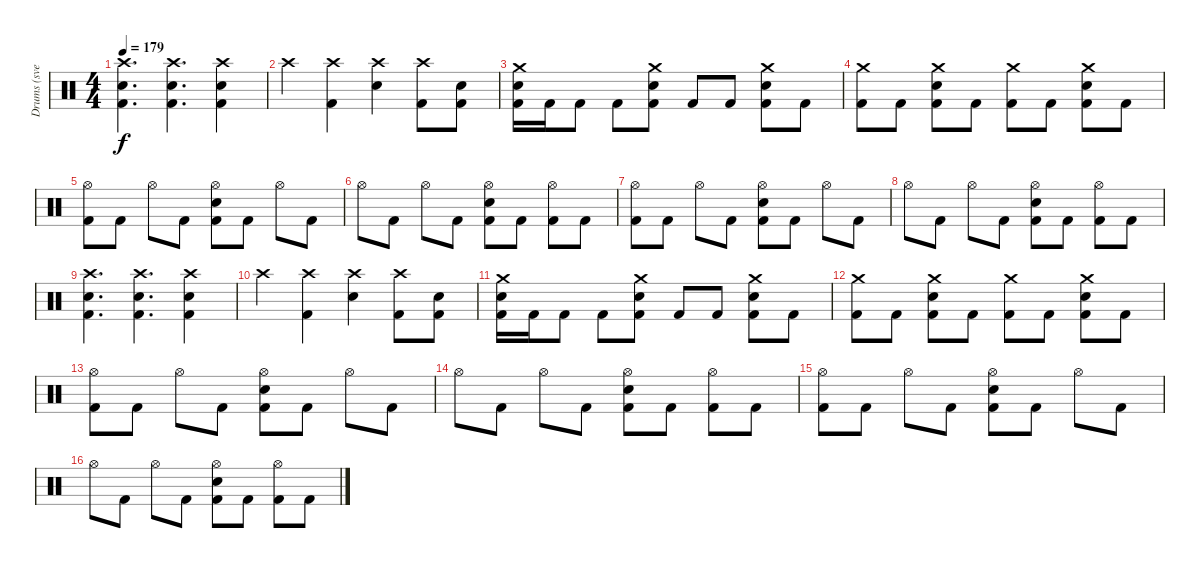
\track ("Drums (svelle)" "Drums (sve") {instrument percussion}
\staff {score}
\articulation defaults
\ts (4 4)
\tempo 179
\clef neutral
\ks c
("Crash high (hit)" "Electric Snare (hit)" "Kick (hit) 2").4{d dy f} ("Crash high (hit)" "Electric Snare (hit)" "Kick (hit) 2").4{d} ("Crash high (hit)" "Electric Snare (hit)" "Kick (hit) 2").4 |
"Crash high (hit)".4 ("Crash high (hit)" "Kick (hit) 2").4 ("Crash high (hit)" "Electric Snare (hit)").4 ("Crash high (hit)" "Kick (hit) 2").8 ("Electric Snare (hit)" "Kick (hit) 2").8 |
("Crash medium (hit)" "Electric Snare (hit)" "Kick (hit) 2").16 "Kick (hit) 2".16 "Kick (hit) 2".8 "Kick (hit) 2".8 ("Crash medium (hit)" "Electric Snare (hit)" "Kick (hit) 2").8 "Kick (hit) 2".8 "Kick (hit) 2".8 ("Crash medium (hit)" "Electric Snare (hit)" "Kick (hit) 2").8 "Kick (hit) 2".8 |
("Crash medium (hit)" "Kick (hit) 2").8 "Kick (hit) 2".8 ("Crash medium (hit)" "Electric Snare (hit)" "Kick (hit) 2").8 "Kick (hit) 2".8 ("Crash medium (hit)" "Kick (hit) 2").8 "Kick (hit) 2".8 ("Crash medium (hit)" "Electric Snare (hit)" "Kick (hit) 2").8 "Kick (hit) 2".8 |
("Hi-Hat (open)" "Kick (hit) 2").8 "Kick (hit) 2".8 "Hi-Hat (open)".8 "Kick (hit) 2".8 ("Hi-Hat (open)" "Electric Snare (hit)" "Kick (hit) 2").8 "Kick (hit) 2".8 "Hi-Hat (open)".8 "Kick (hit) 2".8 |
"Hi-Hat (open)".8 "Kick (hit) 2".8 "Hi-Hat (open)".8 "Kick (hit) 2".8 ("Hi-Hat (open)" "Electric Snare (hit)" "Kick (hit) 2").8 "Kick (hit) 2".8 ("Hi-Hat (open)" "Kick (hit) 2").8 "Kick (hit) 2".8 |
("Hi-Hat (open)" "Kick (hit) 2").8 "Kick (hit) 2".8 "Hi-Hat (open)".8 "Kick (hit) 2".8 ("Hi-Hat (open)" "Electric Snare (hit)" "Kick (hit) 2").8 "Kick (hit) 2".8 "Hi-Hat (open)".8 "Kick (hit) 2".8 |
"Hi-Hat (open)".8 "Kick (hit) 2".8 "Hi-Hat (open)".8 "Kick (hit) 2".8 ("Hi-Hat (open)" "Electric Snare (hit)" "Kick (hit) 2").8 "Kick (hit) 2".8 ("Hi-Hat (open)" "Kick (hit) 2").8 "Kick (hit) 2".8 |
("Crash high (hit)" "Electric Snare (hit)" "Kick (hit) 2").4{d} ("Crash high (hit)" "Electric Snare (hit)" "Kick (hit) 2").4{d} ("Crash high (hit)" "Electric Snare (hit)" "Kick (hit) 2").4 |
"Crash high (hit)".4 ("Crash high (hit)" "Kick (hit) 2").4 ("Crash high (hit)" "Electric Snare (hit)").4 ("Crash high (hit)" "Kick (hit) 2").8 ("Electric Snare (hit)" "Kick (hit) 2").8 |
("Crash medium (hit)" "Electric Snare (hit)" "Kick (hit) 2").16 "Kick (hit) 2".16 "Kick (hit) 2".8 "Kick (hit) 2".8 ("Crash medium (hit)" "Electric Snare (hit)" "Kick (hit) 2").8 "Kick (hit) 2".8 "Kick (hit) 2".8 ("Crash medium (hit)" "Electric Snare (hit)" "Kick (hit) 2").8 "Kick (hit) 2".8 |
("Crash medium (hit)" "Kick (hit) 2").8 "Kick (hit) 2".8 ("Crash medium (hit)" "Electric Snare (hit)" "Kick (hit) 2").8 "Kick (hit) 2".8 ("Crash medium (hit)" "Kick (hit) 2").8 "Kick (hit) 2".8 ("Crash medium (hit)" "Electric Snare (hit)" "Kick (hit) 2").8 "Kick (hit) 2".8 |
("Hi-Hat (open)" "Kick (hit) 2").8 "Kick (hit) 2".8 "Hi-Hat (open)".8 "Kick (hit) 2".8 ("Hi-Hat (open)" "Electric Snare (hit)" "Kick (hit) 2").8 "Kick (hit) 2".8 "Hi-Hat (open)".8 "Kick (hit) 2".8 |
"Hi-Hat (open)".8 "Kick (hit) 2".8 "Hi-Hat (open)".8 "Kick (hit) 2".8 ("Hi-Hat (open)" "Electric Snare (hit)" "Kick (hit) 2").8 "Kick (hit) 2".8 ("Hi-Hat (open)" "Kick (hit) 2").8 "Kick (hit) 2".8 |
("Hi-Hat (open)" "Kick (hit) 2").8 "Kick (hit) 2".8 "Hi-Hat (open)".8 "Kick (hit) 2".8 ("Hi-Hat (open)" "Electric Snare (hit)" "Kick (hit) 2").8 "Kick (hit) 2".8 "Hi-Hat (open)".8 "Kick (hit) 2".8 |
"Hi-Hat (open)".8 "Kick (hit) 2".8 "Hi-Hat (open)".8 "Kick (hit) 2".8 ("Hi-Hat (open)" "Electric Snare (hit)" "Kick (hit) 2").8 "Kick (hit) 2".8 ("Hi-Hat (open)" "Kick (hit) 2").8 "Kick (hit) 2".8
